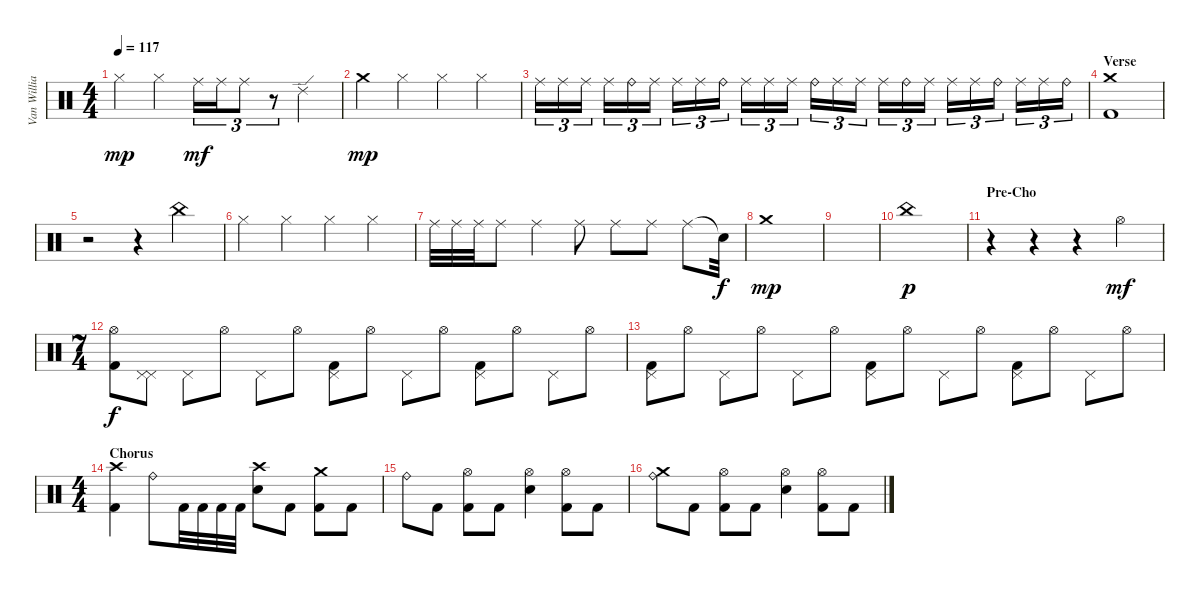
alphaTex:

\track ("Van Williams" "Van Willia") {instrument percussion}
\staff {score}
\articulation defaults
\ts (4 4)
\tempo 117
\clef neutral
\ks c "Hi-Hat (closed)".4{dy mp} "Hi-Hat (closed)".4 "Ride (middle)".16{tu (3 2) dy mf} "Ride (middle)".16{tu (3 2)} "Ride (middle)".8{tu (3 2)}
r.8{tu (3 2)} "Ride (edge) 2".4 |
"Crash medium (hit)".4{dy mp} "Hi-Hat (closed)".4 "Hi-Hat (closed)".4 "Hi-Hat (closed)".4 |
"Ride (middle)".16{tu (3 2)} "Ride (middle)".16{tu (3 2)} "Ride (middle)".16{tu (3 2)} "Ride (middle)".16{tu (3 2)} "Ride (bell)".16{tu (3 2)} "Ride (middle)".16{tu (3 2)} "Ride (middle)".16{tu (3 2)} "Ride (middle)".16{tu (3 2)} "Ride (bell)".16{tu (3 2)} "Ride (middle)".16{tu (3 2)} "Ride (middle)".16{tu (3 2)} "Ride (middle)".16{tu (3 2)} "Ride (bell)".16{tu (3 2)} "Ride (middle)".16{tu (3 2)} "Ride (middle)".16{tu (3 2)} "Ride (middle)".16{tu (3 2)} "Ride (bell)".16{tu (3 2)} "Ride (middle)".16{tu (3 2)} "Ride (middle)".16{tu (3 2)} "Ride (middle)".16{tu (3 2)} "Ride (bell)".16{tu (3 2)} "Ride (middle)".16{tu (3 2)} "Ride (middle)".16{tu (3 2)} "Ride (bell)".16{tu (3 2)} |
\section ("" "Verse")
("Crash medium (hit)" "Kick (hit) 2").1 |
r.2 r.4 "China (hit)".4 |
"Hi-Hat (closed)".4 "Hi-Hat (closed)".4 "Hi-Hat (closed)".4 "Hi-Hat (closed)".4 |
"Ride (middle)".32 "Ride (middle)".32 "Ride (middle)".32 "Ride (middle)".8 "Ride (middle)".4 "Ride (middle)".8 "Ride (middle)".8 "Ride (middle)".8 "Ride (middle)".8 "Snare (hit)"{t}.32{dy f} |
"Crash medium (hit)".1{dy mp} |
|
"China (hit)".1{dy p} |
\section ("" "Pre-Cho")
r.4 r.4 r.4 "Hi-Hat (open)".4{dy mf} |
\ts (7 4)
("Hi-Hat (open)" "Kick (hit) 2").8{dy f} ("Pedal Hi-Hat (hit)" "Pedal Hi-Hat (hit)").8 "Pedal Hi-Hat (hit)".8 "Hi-Hat (open)".8 "Pedal Hi-Hat (hit)".8 "Hi-Hat (open)".8 ("Pedal Hi-Hat (hit)" "Kick (hit) 2").8 "Hi-Hat (open)".8 "Pedal Hi-Hat (hit)".8 "Hi-Hat (open)".8 ("Pedal Hi-Hat (hit)" "Kick (hit) 2").8 "Hi-Hat (open)".8 "Pedal Hi-Hat (hit)".8 "Hi-Hat (open)".8 |
("Pedal Hi-Hat (hit)" "Kick (hit) 2").8 "Hi-Hat (open)".8 "Pedal Hi-Hat (hit)".8 "Hi-Hat (open)".8 "Pedal Hi-Hat (hit)".8 "Hi-Hat (open)".8 ("Pedal Hi-Hat (hit)" "Kick (hit) 2").8 "Hi-Hat (open)".8 "Pedal Hi-Hat (hit)".8 "Hi-Hat (open)".8 ("Pedal Hi-Hat (hit)" "Kick (hit) 2").8 "Hi-Hat (open)".8 "Pedal Hi-Hat (hit)".8 "Hi-Hat (open)".8 |
\ts (4 4)
\section ("" "Chorus")
("Crash high (hit)" "Kick (hit) 2").4 "Ride (bell)".8 "Kick (hit) 2".32 "Kick (hit) 2".32 "Kick (hit) 2".32 "Kick (hit) 2".32 ("Crash high (hit)" "Electric Snare (hit)").8 "Kick (hit) 2".8 ("Crash medium (hit)" "Kick (hit) 2").8 "Kick (hit) 2".8 |
"Ride (bell)".8 "Kick (hit) 2".8 ("Hi-Hat (open)" "Kick (hit) 2").8 "Kick (hit) 2".8 ("Hi-Hat (open)" "Electric Snare (hit)").4 ("Hi-Hat (open)" "Kick (hit) 2").8 "Kick (hit) 2".8 |
("Ride (bell)" "Crash medium (hit)").8 "Kick (hit) 2".8 ("Hi-Hat (open)" "Kick (hit) 2").8 "Kick (hit) 2".8 ("Hi-Hat (open)" "Electric Snare (hit)").4 ("Hi-Hat (open)" "Kick (hit) 2").8 "Kick (hit) 2".8
